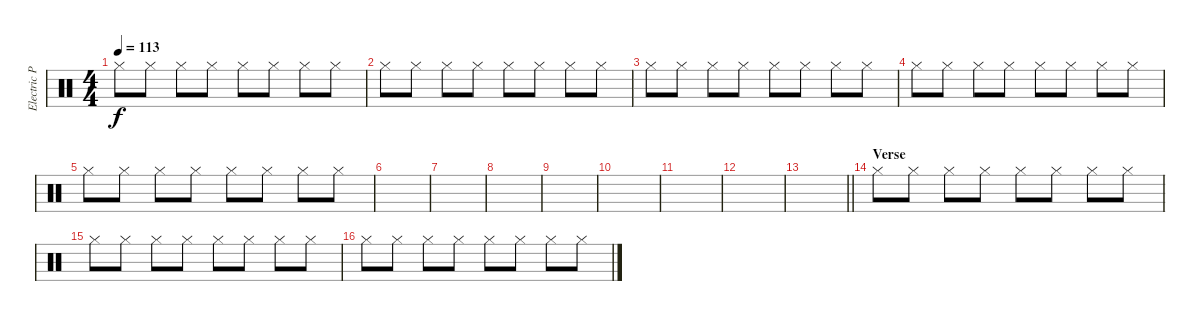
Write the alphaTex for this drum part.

\track ("Electric Percussion" "Electric P") {instrument percussion bank 3}
\staff {score}
\articulation defaults
\ts (4 4)
\tempo 113
\clef neutral
\ks c "Hi-Hat (closed)".8{dy f} "Hi-Hat (closed)".8 "Hi-Hat (closed)".8 "Hi-Hat (closed)".8 "Hi-Hat (closed)".8 "Hi-Hat (closed)".8 "Hi-Hat (closed)".8 "Hi-Hat (closed)".8
|
"Hi-Hat (closed)".8 "Hi-Hat (closed)".8 "Hi-Hat (closed)".8 "Hi-Hat (closed)".8 "Hi-Hat (closed)".8 "Hi-Hat (closed)".8 "Hi-Hat (closed)".8 "Hi-Hat (closed)".8 |
"Hi-Hat (closed)".8 "Hi-Hat (closed)".8 "Hi-Hat (closed)".8 "Hi-Hat (closed)".8 "Hi-Hat (closed)".8 "Hi-Hat (closed)".8 "Hi-Hat (closed)".8 "Hi-Hat (closed)".8 |
"Hi-Hat (closed)".8 "Hi-Hat (closed)".8 "Hi-Hat (closed)".8 "Hi-Hat (closed)".8 "Hi-Hat (closed)".8 "Hi-Hat (closed)".8 "Hi-Hat (closed)".8 "Hi-Hat (closed)".8 |
"Hi-Hat (closed)".8 "Hi-Hat (closed)".8 "Hi-Hat (closed)".8 "Hi-Hat (closed)".8 "Hi-Hat (closed)".8 "Hi-Hat (closed)".8 "Hi-Hat (closed)".8 "Hi-Hat (closed)".8 |
|
|
|
|
|
|
|
\barLineRight lightlight
|
\section ("" "Verse")
"Hi-Hat (closed)".8 "Hi-Hat (closed)".8 "Hi-Hat (closed)".8 "Hi-Hat (closed)".8 "Hi-Hat (closed)".8 "Hi-Hat (closed)".8 "Hi-Hat (closed)".8 "Hi-Hat (closed)".8 |
"Hi-Hat (closed)".8 "Hi-Hat (closed)".8 "Hi-Hat (closed)".8 "Hi-Hat (closed)".8 "Hi-Hat (closed)".8 "Hi-Hat (closed)".8 "Hi-Hat (closed)".8 "Hi-Hat (closed)".8 |
"Hi-Hat (closed)".8 "Hi-Hat (closed)".8 "Hi-Hat (closed)".8 "Hi-Hat (closed)".8 "Hi-Hat (closed)".8 "Hi-Hat (closed)".8 "Hi-Hat (closed)".8 "Hi-Hat (closed)".8
